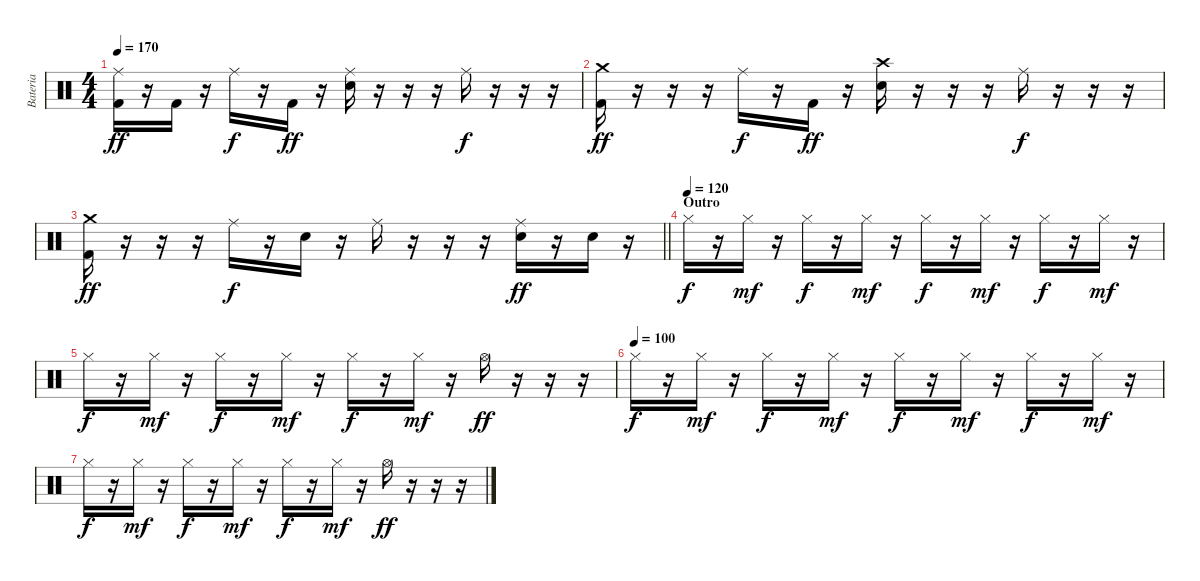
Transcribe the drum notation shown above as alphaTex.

\track ("Bateria" "Bateria") {instrument percussion}
\staff {score}
\articulation defaults
\ts (4 4)
\tempo 170
\clef neutral
\ks c
("Ride (middle)" "Kick (hit) 2").16{dy ff} r.16 "Kick (hit) 2".16 r.16 "Ride (middle)".16{dy f} r.16 "Kick (hit) 2".16{dy ff} r.16 ("Ride (middle)" "Electric Snare (hit)").16 r.16 r.16 r.16 "Ride (middle)".16{dy f} r.16 r.16 r.16 |
("Crash medium (hit)" "Kick (hit) 2").16{dy ff} r.16 r.16 r.16 "Ride (middle)".16{dy f} r.16 "Kick (hit) 2".16{dy ff} r.16 ("Crash high (hit)" "Electric Snare (hit)").16 r.16 r.16 r.16 "Ride (middle)".16{dy f} r.16 r.16 r.16 |
\barLineRight lightlight
("Crash medium (hit)" "Kick (hit) 2").16{dy ff} r.16 r.16 r.16 "Ride (middle)".16{dy f} r.16 "Electric Snare (hit)".16 r.16 "Ride (middle)".16 r.16 r.16 r.16 ("Ride (middle)" "Electric Snare (hit)").16{dy ff} r.16 "Electric Snare (hit)".16 r.16 |
\section ("" "Outro")
\tempo (120)
"Hi-Hat (closed)".16{dy f} r.16 "Hi-Hat (closed)".16{dy mf} r.16 "Hi-Hat (closed)".16{dy f} r.16 "Hi-Hat (closed)".16{dy mf} r.16 "Hi-Hat (closed)".16{dy f} r.16 "Hi-Hat (closed)".16{dy mf} r.16 "Hi-Hat (closed)".16{dy f} r.16 "Hi-Hat (closed)".16{dy mf} r.16 |
"Hi-Hat (closed)".16{dy f} r.16 "Hi-Hat (closed)".16{dy mf} r.16 "Hi-Hat (closed)".16{dy f} r.16 "Hi-Hat (closed)".16{dy mf} r.16 "Hi-Hat (closed)".16{dy f} r.16 "Hi-Hat (closed)".16{dy mf} r.16 "Hi-Hat (open)".16{dy ff} r.16 r.16 r.16 |
\tempo (100)
"Hi-Hat (closed)".16{dy f} r.16 "Hi-Hat (closed)".16{dy mf} r.16 "Hi-Hat (closed)".16{dy f} r.16 "Hi-Hat (closed)".16{dy mf} r.16 "Hi-Hat (closed)".16{dy f} r.16 "Hi-Hat (closed)".16{dy mf} r.16 "Hi-Hat (closed)".16{dy f} r.16 "Hi-Hat (closed)".16{dy mf} r.16 |
"Hi-Hat (closed)".16{dy f} r.16 "Hi-Hat (closed)".16{dy mf} r.16 "Hi-Hat (closed)".16{dy f} r.16 "Hi-Hat (closed)".16{dy mf} r.16 "Hi-Hat (closed)".16{dy f} r.16 "Hi-Hat (closed)".16{dy mf} r.16 "Hi-Hat (open)".16{dy ff} r.16 r.16 r.16
